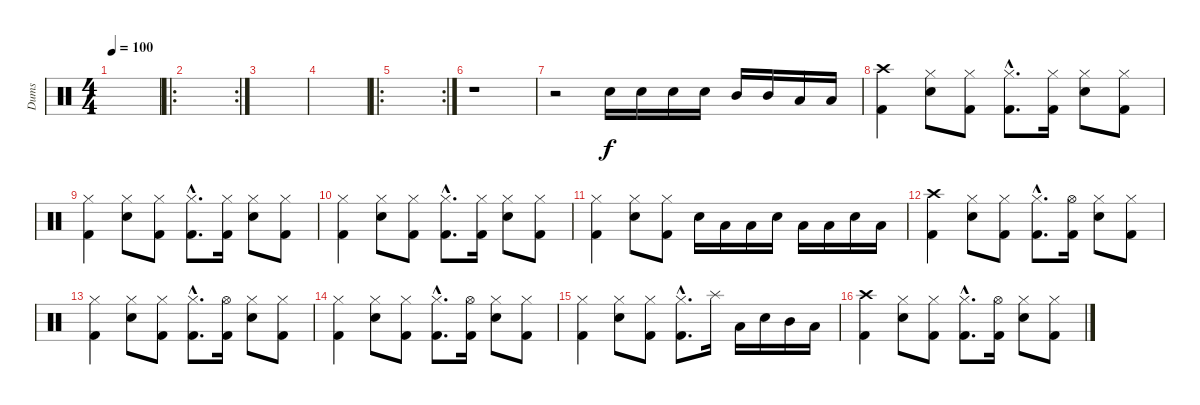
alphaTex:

\track ("Dums" "Dums") {instrument percussion}
\staff {score}
\articulation defaults
\ts (4 4)
\tempo 100
\clef neutral
\ks c
|
\ro
\rc 2
|
|
|
\ro
\rc 2
|
r.1 |
r.2 "Electric Snare (hit)".16 "Electric Snare (hit)".16 "Electric Snare (hit)".16 "Electric Snare (hit)".16 "Mid Tom (hit)".16 "Mid Tom (hit)".16 "Low Tom (hit)".16 "Low Tom (hit)".16 |
("Crash high (hit)" "Kick (hit) 2").4 ("Hi-Hat (closed)" "Snare (hit) 2").8 ("Hi-Hat (closed)" "Kick (hit) 2").8 ("Hi-Hat (closed)"{hac} "Kick (hit) 2"{hac}).8{d} ("Hi-Hat (closed)" "Kick (hit) 2").16 ("Hi-Hat (closed)" "Snare (hit) 2").8 ("Hi-Hat (closed)" "Kick (hit) 2").8 |
("Hi-Hat (closed)" "Kick (hit) 2").4 ("Hi-Hat (closed)" "Snare (hit) 2").8 ("Hi-Hat (closed)" "Kick (hit) 2").8 ("Hi-Hat (closed)"{hac} "Kick (hit) 2"{hac}).8{d} ("Hi-Hat (closed)" "Kick (hit) 2").16 ("Hi-Hat (closed)" "Snare (hit) 2").8 ("Hi-Hat (closed)" "Kick (hit) 2").8 |
("Hi-Hat (closed)" "Kick (hit) 2").4 ("Hi-Hat (closed)" "Snare (hit) 2").8 ("Hi-Hat (closed)" "Kick (hit) 2").8 ("Hi-Hat (closed)"{hac} "Kick (hit) 2"{hac}).8{d} ("Hi-Hat (closed)" "Kick (hit) 2").16 ("Hi-Hat (closed)" "Snare (hit) 2").8 ("Hi-Hat (closed)" "Kick (hit) 2").8 |
("Hi-Hat (closed)" "Kick (hit) 2").4 ("Hi-Hat (closed)" "Snare (hit) 2").8 ("Hi-Hat (closed)" "Kick (hit) 2").8 "Electric Snare (hit)".16 "Low Tom (hit)".16 "Low Tom (hit)".16 "Electric Snare (hit)".16 "Low Tom (hit)".16 "Low Tom (hit)".16 "Electric Snare (hit)".16 "Low Tom (hit)".16 |
("Crash high (hit)" "Kick (hit) 2").4 ("Hi-Hat (closed)" "Snare (hit) 2").8 ("Hi-Hat (closed)" "Kick (hit) 2").8 ("Hi-Hat (closed)"{hac} "Kick (hit) 2"{hac}).8{d} ("Hi-Hat (open)" "Kick (hit) 2").16 ("Hi-Hat (closed)" "Snare (hit) 2").8 ("Hi-Hat (closed)" "Kick (hit) 2").8 |
("Hi-Hat (closed)" "Kick (hit) 2").4 ("Hi-Hat (closed)" "Snare (hit) 2").8 ("Hi-Hat (closed)" "Kick (hit) 2").8 ("Hi-Hat (closed)"{hac} "Kick (hit) 2"{hac}).8{d} ("Hi-Hat (open)" "Kick (hit) 2").16 ("Hi-Hat (closed)" "Snare (hit) 2").8 ("Hi-Hat (closed)" "Kick (hit) 2").8 |
("Hi-Hat (closed)" "Kick (hit) 2").4 ("Hi-Hat (closed)" "Snare (hit) 2").8 ("Hi-Hat (closed)" "Kick (hit) 2").8 ("Hi-Hat (closed)"{hac} "Kick (hit) 2"{hac}).8{d} ("Hi-Hat (open)" "Kick (hit) 2").16 ("Hi-Hat (closed)" "Snare (hit) 2").8 ("Hi-Hat (closed)" "Kick (hit) 2").8 |
("Hi-Hat (closed)" "Kick (hit) 2").4 ("Hi-Hat (closed)" "Snare (hit) 2").8 ("Hi-Hat (closed)" "Kick (hit) 2").8 ("Hi-Hat (closed)"{hac} "Kick (hit) 2"{hac}).8{d} "Splash (hit)".16 "Low Tom (hit)".16 "Electric Snare (hit)".16 "Mid Tom (hit)".16 "Low Tom (hit)".16 |
("Crash high (hit)" "Kick (hit) 2").4 ("Hi-Hat (closed)" "Snare (hit) 2").8 ("Hi-Hat (closed)" "Kick (hit) 2").8 ("Hi-Hat (closed)"{hac} "Kick (hit) 2"{hac}).8{d} ("Hi-Hat (open)" "Kick (hit) 2").16 ("Hi-Hat (closed)" "Snare (hit) 2").8 ("Hi-Hat (closed)" "Kick (hit) 2").8
